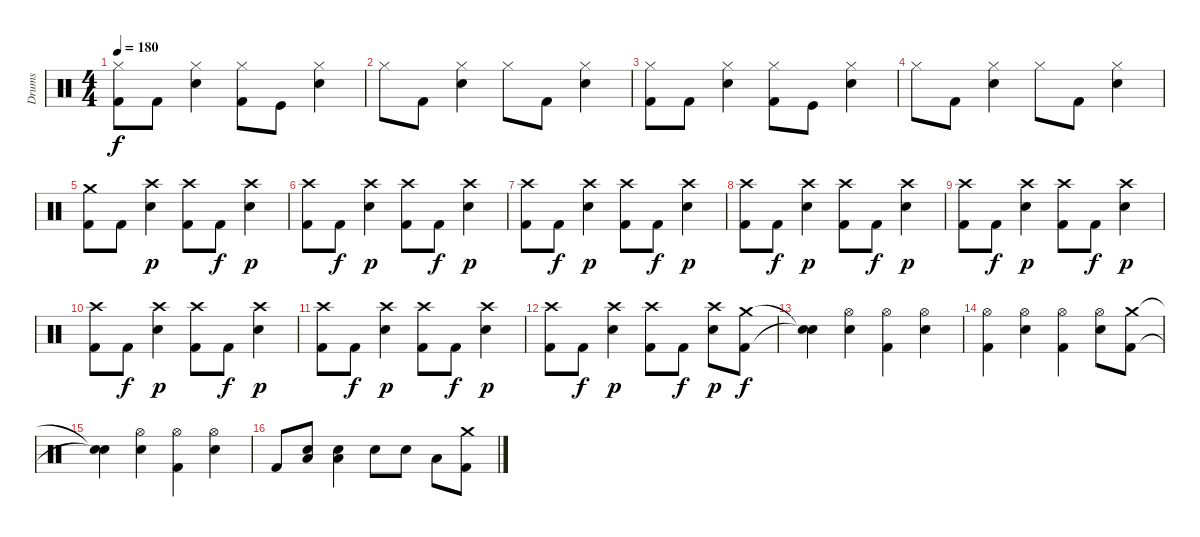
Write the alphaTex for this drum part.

\track ("Drums" "Drums") {instrument percussion}
\staff {score}
\articulation defaults
\ts (4 4)
\tempo 180
\clef neutral
\ks c
("Hi-Hat (closed)" "Kick (hit) 2").8{dy f} "Kick (hit) 2".8 ("Hi-Hat (closed)" "Electric Snare (hit)").4 ("Hi-Hat (closed)" "Kick (hit) 2").8 "Kick (hit)".8 ("Hi-Hat (closed)" "Electric Snare (hit)").4 |
"Hi-Hat (closed)".8 "Kick (hit) 2".8 ("Hi-Hat (closed)" "Electric Snare (hit)").4 "Hi-Hat (closed)".8 "Kick (hit) 2".8 ("Hi-Hat (closed)" "Electric Snare (hit)").4 |
("Hi-Hat (closed)" "Kick (hit) 2").8 "Kick (hit) 2".8 ("Hi-Hat (closed)" "Electric Snare (hit)").4 ("Hi-Hat (closed)" "Kick (hit) 2").8 "Kick (hit)".8 ("Hi-Hat (closed)" "Electric Snare (hit)").4 |
"Hi-Hat (closed)".8 "Kick (hit) 2".8 ("Hi-Hat (closed)" "Electric Snare (hit)").4 "Hi-Hat (closed)".8 "Kick (hit) 2".8 ("Hi-Hat (closed)" "Electric Snare (hit)").4 |
("Crash medium (hit)" "Kick (hit) 2").8 "Kick (hit) 2".8 ("Crash high (hit)" "Electric Snare (hit)").4{dy p} ("Crash high (hit)" "Kick (hit) 2").8 "Kick (hit) 2".8{dy f} ("Crash high (hit)" "Electric Snare (hit)").4{dy p} |
("Crash high (hit)" "Kick (hit) 2").8 "Kick (hit) 2".8{dy f} ("Crash high (hit)" "Electric Snare (hit)").4{dy p} ("Crash high (hit)" "Kick (hit) 2").8 "Kick (hit) 2".8{dy f} ("Crash high (hit)" "Electric Snare (hit)").4{dy p} |
("Crash high (hit)" "Kick (hit) 2").8 "Kick (hit) 2".8{dy f} ("Crash high (hit)" "Electric Snare (hit)").4{dy p} ("Crash high (hit)" "Kick (hit) 2").8 "Kick (hit) 2".8{dy f} ("Crash high (hit)" "Electric Snare (hit)").4{dy p} |
("Crash high (hit)" "Kick (hit) 2").8 "Kick (hit) 2".8{dy f} ("Crash high (hit)" "Electric Snare (hit)").4{dy p} ("Crash high (hit)" "Kick (hit) 2").8 "Kick (hit) 2".8{dy f} ("Crash high (hit)" "Electric Snare (hit)").4{dy p} |
("Crash high (hit)" "Kick (hit) 2").8 "Kick (hit) 2".8{dy f} ("Crash high (hit)" "Electric Snare (hit)").4{dy p} ("Crash high (hit)" "Kick (hit) 2").8 "Kick (hit) 2".8{dy f} ("Crash high (hit)" "Electric Snare (hit)").4{dy p} |
("Crash high (hit)" "Kick (hit) 2").8 "Kick (hit) 2".8{dy f} ("Crash high (hit)" "Electric Snare (hit)").4{dy p} ("Crash high (hit)" "Kick (hit) 2").8 "Kick (hit) 2".8{dy f} ("Crash high (hit)" "Electric Snare (hit)").4{dy p} |
("Crash high (hit)" "Kick (hit) 2").8 "Kick (hit) 2".8{dy f} ("Crash high (hit)" "Electric Snare (hit)").4{dy p} ("Crash high (hit)" "Kick (hit) 2").8 "Kick (hit) 2".8{dy f} ("Crash high (hit)" "Electric Snare (hit)").4{dy p} |
("Crash high (hit)" "Kick (hit) 2").8 "Kick (hit) 2".8{dy f} ("Crash high (hit)" "Electric Snare (hit)").4{dy p} ("Crash high (hit)" "Kick (hit) 2").8 "Kick (hit) 2".8{dy f} ("Crash high (hit)" "Electric Snare (hit)").8{dy p} ("Crash medium (hit)" "Kick (hit) 2").8{dy f} |
("Snare (hit)"{t} "Snare (hit)"{t}).4 ("Hi-Hat (open)" "Electric Snare (hit)").4 ("Hi-Hat (open)" "Kick (hit) 2").4 ("Hi-Hat (open)" "Electric Snare (hit)").4 |
("Hi-Hat (open)" "Kick (hit) 2").4 ("Hi-Hat (open)" "Electric Snare (hit)").4 ("Hi-Hat (open)" "Kick (hit) 2").4 ("Hi-Hat (open)" "Electric Snare (hit)").8 ("Crash medium (hit)" "Kick (hit) 2").8 |
("Snare (hit)"{t} "Snare (hit)"{t}).4 ("Hi-Hat (open)" "Electric Snare (hit)").4 ("Hi-Hat (open)" "Kick (hit) 2").4 ("Hi-Hat (open)" "Electric Snare (hit)").4 |
"Kick (hit) 2".8 ("Low Floor Tom (hit)" "Electric Snare (hit)").8 ("Low Floor Tom (hit)" "Electric Snare (hit)").4 "Electric Snare (hit)".8 "Electric Snare (hit)".8 "Low Tom (hit)".8 ("Crash medium (hit)" "Kick (hit) 2").8
